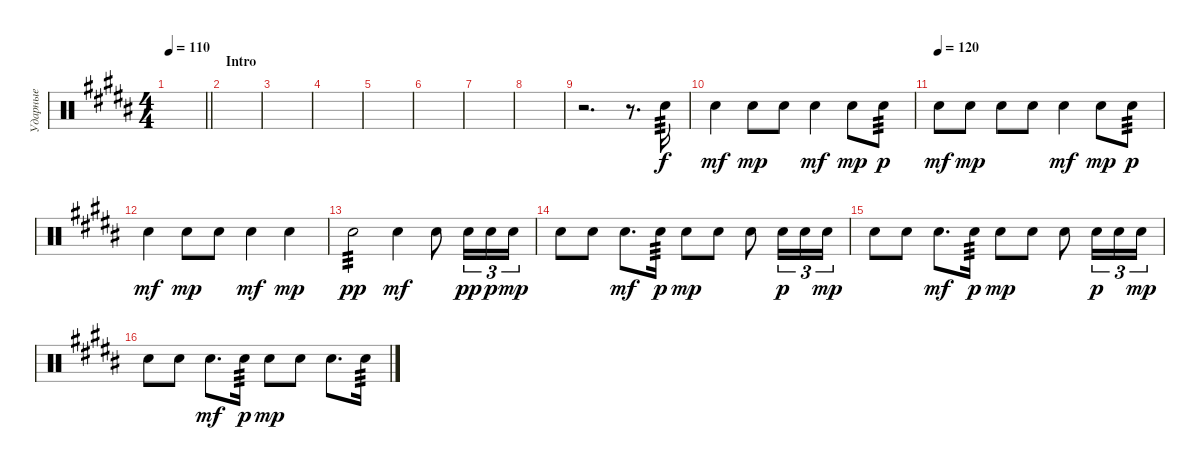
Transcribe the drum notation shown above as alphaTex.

\track ("Ударные" "Ударные") {instrument percussion}
\staff {score}
\articulation defaults
\ts (4 4)
\tempo 110
\clef neutral
\barLineRight lightlight
\ks g#minor
|
\section ("" "Intro")
|
|
|
|
|
|
|
r.2{d} r.8{d} "Snare (hit) 2".16{tp 3} |
"Snare (hit) 2".4{dy mf} "Snare (hit) 2".8{dy mp} "Snare (hit) 2".8 "Snare (hit) 2".4{dy mf} "Snare (hit) 2".8{dy mp} "Snare (hit) 2".8{tp 3 dy p} |
\tempo (120)
"Snare (hit) 2".8{dy mf} "Snare (hit) 2".8{dy mp} "Snare (hit) 2".8 "Snare (hit) 2".8 "Snare (hit) 2".4{dy mf} "Snare (hit) 2".8{dy mp} "Snare (hit) 2".8{tp 3 dy p} |
"Snare (hit) 2".4{dy mf} "Snare (hit) 2".8{dy mp} "Snare (hit) 2".8 "Snare (hit) 2".4{dy mf} "Snare (hit) 2".4{dy mp} |
"Snare (hit) 2".2{tp 3 dy pp} "Snare (hit) 2".4{dy mf} "Snare (hit) 2".8 "Snare (hit) 2".16{tu (3 2) dy pp} "Snare (hit) 2".16{tu (3 2) dy p} "Snare (hit) 2".16{tu (3 2) dy mp} |
"Snare (hit) 2".8 "Snare (hit) 2".8 "Snare (hit) 2".8{d dy mf} "Snare (hit) 2".16{tp 3 dy p} "Snare (hit) 2".8{dy mp} "Snare (hit) 2".8 "Snare (hit) 2".8 "Snare (hit) 2".16{tu (3 2) dy p} "Snare (hit) 2".16{tu (3 2)} "Snare (hit) 2".16{tu (3 2) dy mp} |
"Snare (hit) 2".8 "Snare (hit) 2".8 "Snare (hit) 2".8{d dy mf} "Snare (hit) 2".16{tp 3 dy p} "Snare (hit) 2".8{dy mp} "Snare (hit) 2".8 "Snare (hit) 2".8 "Snare (hit) 2".16{tu (3 2) dy p} "Snare (hit) 2".16{tu (3 2)} "Snare (hit) 2".16{tu (3 2) dy mp} |
"Snare (hit) 2".8 "Snare (hit) 2".8 "Snare (hit) 2".8{d dy mf} "Snare (hit) 2".16{tp 3 dy p} "Snare (hit) 2".8{dy mp} "Snare (hit) 2".8 "Snare (hit) 2".8{d} "Snare (hit) 2".16{tp 3}
